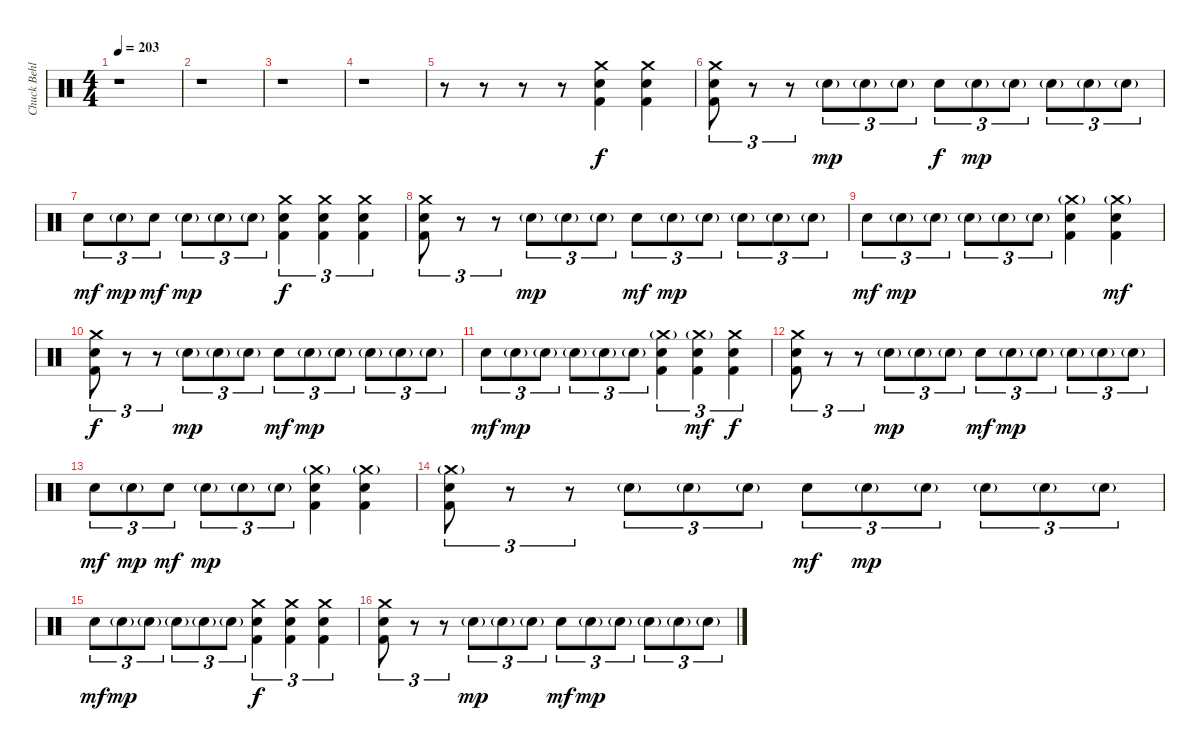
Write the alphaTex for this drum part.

\track ("Chuck Behler" "Chuck Behl") {instrument percussion}
\staff {score}
\articulation defaults
\ts (4 4)
\tempo 203
\clef neutral
\ks c
r.1{dy f} |
r.1 |
r.1 |
r.1 |
r.8 r.8 r.8 r.8 ("Crash medium (hit)" "Snare (hit) 2" "Kick (hit) 2").4 ("Crash medium (hit)" "Snare (hit) 2" "Kick (hit) 2").4 |
("Crash medium (hit)" "Snare (hit) 2" "Kick (hit) 2").8{tu (3 2)} r.8{tu (3 2)} r.8{tu (3 2)} "Snare (hit) 2"{g}.8{tu (3 2) dy mp} "Snare (hit) 2"{g}.8{tu (3 2)} "Snare (hit) 2"{g}.8{tu (3 2)} "Snare (hit) 2".8{tu (3 2) dy f} "Snare (hit) 2"{g}.8{tu (3 2) dy mp} "Snare (hit) 2"{g}.8{tu (3 2)} "Snare (hit) 2"{g}.8{tu (3 2)} "Snare (hit) 2"{g}.8{tu (3 2)} "Snare (hit) 2"{g}.8{tu (3 2)} |
"Snare (hit) 2".8{tu (3 2) dy mf} "Snare (hit) 2"{g}.8{tu (3 2) dy mp} "Snare (hit) 2".8{tu (3 2) dy mf} "Snare (hit) 2"{g}.8{tu (3 2) dy mp} "Snare (hit) 2"{g}.8{tu (3 2)} "Snare (hit) 2"{g}.8{tu (3 2)} ("Crash medium (hit)" "Snare (hit) 2" "Kick (hit) 2").4{tu (3 2) dy f} ("Crash medium (hit)" "Snare (hit) 2" "Kick (hit) 2").4{tu (3 2)} ("Crash medium (hit)" "Snare (hit) 2" "Kick (hit) 2").4{tu (3 2)} |
("Crash medium (hit)" "Snare (hit) 2" "Kick (hit) 2").8{tu (3 2)} r.8{tu (3 2)} r.8{tu (3 2)} "Snare (hit) 2"{g}.8{tu (3 2) dy mp} "Snare (hit) 2"{g}.8{tu (3 2)} "Snare (hit) 2"{g}.8{tu (3 2)} "Snare (hit) 2".8{tu (3 2) dy mf} "Snare (hit) 2"{g}.8{tu (3 2) dy mp} "Snare (hit) 2"{g}.8{tu (3 2)} "Snare (hit) 2"{g}.8{tu (3 2)} "Snare (hit) 2"{g}.8{tu (3 2)} "Snare (hit) 2"{g}.8{tu (3 2)} |
"Snare (hit) 2".8{tu (3 2) dy mf} "Snare (hit) 2"{g}.8{tu (3 2) dy mp} "Snare (hit) 2"{g}.8{tu (3 2)} "Snare (hit) 2"{g}.8{tu (3 2)} "Snare (hit) 2"{g}.8{tu (3 2)} "Snare (hit) 2"{g}.8{tu (3 2)} ("Crash medium (hit)"{g} "Snare (hit) 2" "Kick (hit) 2").4 ("Crash medium (hit)"{g} "Snare (hit) 2" "Kick (hit) 2").4{dy mf} |
("Crash medium (hit)" "Snare (hit) 2" "Kick (hit) 2").8{tu (3 2) dy f} r.8{tu (3 2)} r.8{tu (3 2)} "Snare (hit) 2"{g}.8{tu (3 2) dy mp} "Snare (hit) 2"{g}.8{tu (3 2)} "Snare (hit) 2"{g}.8{tu (3 2)} "Snare (hit) 2".8{tu (3 2) dy mf} "Snare (hit) 2"{g}.8{tu (3 2) dy mp} "Snare (hit) 2"{g}.8{tu (3 2)} "Snare (hit) 2"{g}.8{tu (3 2)} "Snare (hit) 2"{g}.8{tu (3 2)} "Snare (hit) 2"{g}.8{tu (3 2)} |
"Snare (hit) 2".8{tu (3 2) dy mf} "Snare (hit) 2"{g}.8{tu (3 2) dy mp} "Snare (hit) 2"{g}.8{tu (3 2)} "Snare (hit) 2"{g}.8{tu (3 2)} "Snare (hit) 2"{g}.8{tu (3 2)} "Snare (hit) 2"{g}.8{tu (3 2)} ("Crash medium (hit)"{g} "Snare (hit) 2" "Kick (hit) 2").4{tu (3 2)} ("Crash medium (hit)"{g} "Snare (hit) 2" "Kick (hit) 2").4{tu (3 2) dy mf} ("Crash medium (hit)" "Snare (hit) 2" "Kick (hit) 2").4{tu (3 2) dy f} |
("Crash medium (hit)" "Snare (hit) 2" "Kick (hit) 2").8{tu (3 2)} r.8{tu (3 2)} r.8{tu (3 2)} "Snare (hit) 2"{g}.8{tu (3 2) dy mp} "Snare (hit) 2"{g}.8{tu (3 2)} "Snare (hit) 2"{g}.8{tu (3 2)} "Snare (hit) 2".8{tu (3 2) dy mf} "Snare (hit) 2"{g}.8{tu (3 2) dy mp} "Snare (hit) 2"{g}.8{tu (3 2)} "Snare (hit) 2"{g}.8{tu (3 2)} "Snare (hit) 2"{g}.8{tu (3 2)} "Snare (hit) 2"{g}.8{tu (3 2)} |
"Snare (hit) 2".8{tu (3 2) dy mf} "Snare (hit) 2"{g}.8{tu (3 2) dy mp} "Snare (hit) 2".8{tu (3 2) dy mf} "Snare (hit) 2"{g}.8{tu (3 2) dy mp} "Snare (hit) 2"{g}.8{tu (3 2)} "Snare (hit) 2"{g}.8{tu (3 2)} ("Crash medium (hit)"{g} "Snare (hit) 2" "Kick (hit) 2").4 ("Crash medium (hit)"{g} "Snare (hit) 2" "Kick (hit) 2").4 |
("Crash medium (hit)"{g} "Snare (hit) 2" "Kick (hit) 2").8{tu (3 2)} r.8{tu (3 2)} r.8{tu (3 2)} "Snare (hit) 2"{g}.8{tu (3 2)} "Snare (hit) 2"{g}.8{tu (3 2)} "Snare (hit) 2"{g}.8{tu (3 2)} "Snare (hit) 2".8{tu (3 2) dy mf} "Snare (hit) 2"{g}.8{tu (3 2) dy mp} "Snare (hit) 2"{g}.8{tu (3 2)} "Snare (hit) 2"{g}.8{tu (3 2)} "Snare (hit) 2"{g}.8{tu (3 2)} "Snare (hit) 2"{g}.8{tu (3 2)} |
"Snare (hit) 2".8{tu (3 2) dy mf} "Snare (hit) 2"{g}.8{tu (3 2) dy mp} "Snare (hit) 2"{g}.8{tu (3 2)} "Snare (hit) 2"{g}.8{tu (3 2)} "Snare (hit) 2"{g}.8{tu (3 2)} "Snare (hit) 2"{g}.8{tu (3 2)} ("Crash medium (hit)" "Snare (hit) 2" "Kick (hit) 2").4{tu (3 2) dy f} ("Crash medium (hit)" "Snare (hit) 2" "Kick (hit) 2").4{tu (3 2)} ("Crash medium (hit)" "Snare (hit) 2" "Kick (hit) 2").4{tu (3 2)} |
("Crash medium (hit)" "Snare (hit) 2" "Kick (hit) 2").8{tu (3 2)} r.8{tu (3 2)} r.8{tu (3 2)} "Snare (hit) 2"{g}.8{tu (3 2) dy mp} "Snare (hit) 2"{g}.8{tu (3 2)} "Snare (hit) 2"{g}.8{tu (3 2)} "Snare (hit) 2".8{tu (3 2) dy mf} "Snare (hit) 2"{g}.8{tu (3 2) dy mp} "Snare (hit) 2"{g}.8{tu (3 2)} "Snare (hit) 2"{g}.8{tu (3 2)} "Snare (hit) 2"{g}.8{tu (3 2)} "Snare (hit) 2"{g}.8{tu (3 2)}
